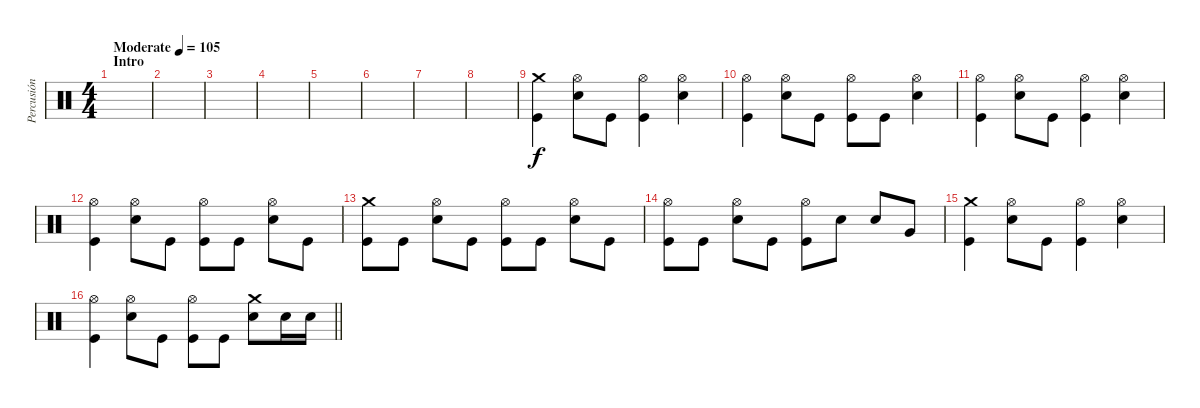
\track ("Percusión" "Percusión") {instrument percussion}
\staff {score}
\articulation defaults
\ts (4 4)
\section ("" "Intro")
\tempo (105 "Moderate")
\clef neutral
\ks c
|
|
|
|
|
|
|
|
("Crash medium (hit)" "Kick (hit)").4 ("Hi-Hat (open)" "Snare (hit) 2").8 "Kick (hit)".8 ("Hi-Hat (open)" "Kick (hit)").4 ("Hi-Hat (open)" "Snare (hit) 2").4 |
("Hi-Hat (open)" "Kick (hit)").4 ("Hi-Hat (open)" "Snare (hit) 2").8 "Kick (hit)".8 ("Hi-Hat (open)" "Kick (hit)").8 "Kick (hit)".8 ("Hi-Hat (open)" "Snare (hit) 2").4 |
("Hi-Hat (open)" "Kick (hit)").4 ("Hi-Hat (open)" "Snare (hit) 2").8 "Kick (hit)".8 ("Hi-Hat (open)" "Kick (hit)").4 ("Hi-Hat (open)" "Snare (hit) 2").4 |
("Hi-Hat (open)" "Kick (hit)").4 ("Hi-Hat (open)" "Snare (hit) 2").8 "Kick (hit)".8 ("Hi-Hat (open)" "Kick (hit)").8 "Kick (hit)".8 ("Hi-Hat (open)" "Snare (hit) 2").8 "Kick (hit)".8 |
("Crash medium (hit)" "Kick (hit)").8 "Kick (hit)".8 ("Hi-Hat (open)" "Snare (hit) 2").8 "Kick (hit)".8 ("Hi-Hat (open)" "Kick (hit)").8 "Kick (hit)".8 ("Hi-Hat (open)" "Snare (hit) 2").8 "Kick (hit)".8 |
("Hi-Hat (open)" "Kick (hit)").8 "Kick (hit)".8 ("Hi-Hat (open)" "Snare (hit) 2").8 "Kick (hit)".8 ("Hi-Hat (open)" "Kick (hit)").8 "Snare (hit) 2".8 "Snare (hit) 2".8 "Very Low Tom (hit)".8 |
("Crash medium (hit)" "Kick (hit)").4 ("Hi-Hat (open)" "Snare (hit) 2").8 "Kick (hit)".8 ("Hi-Hat (open)" "Kick (hit)").4 ("Hi-Hat (open)" "Snare (hit) 2").4 |
\barLineRight lightlight
("Hi-Hat (open)" "Kick (hit)").4 ("Hi-Hat (open)" "Snare (hit) 2").8 "Kick (hit)".8 ("Hi-Hat (open)" "Kick (hit)").8 "Kick (hit)".8 ("Crash medium (hit)" "Snare (hit) 2").8 "Snare (hit) 2".16 "Snare (hit) 2".16
